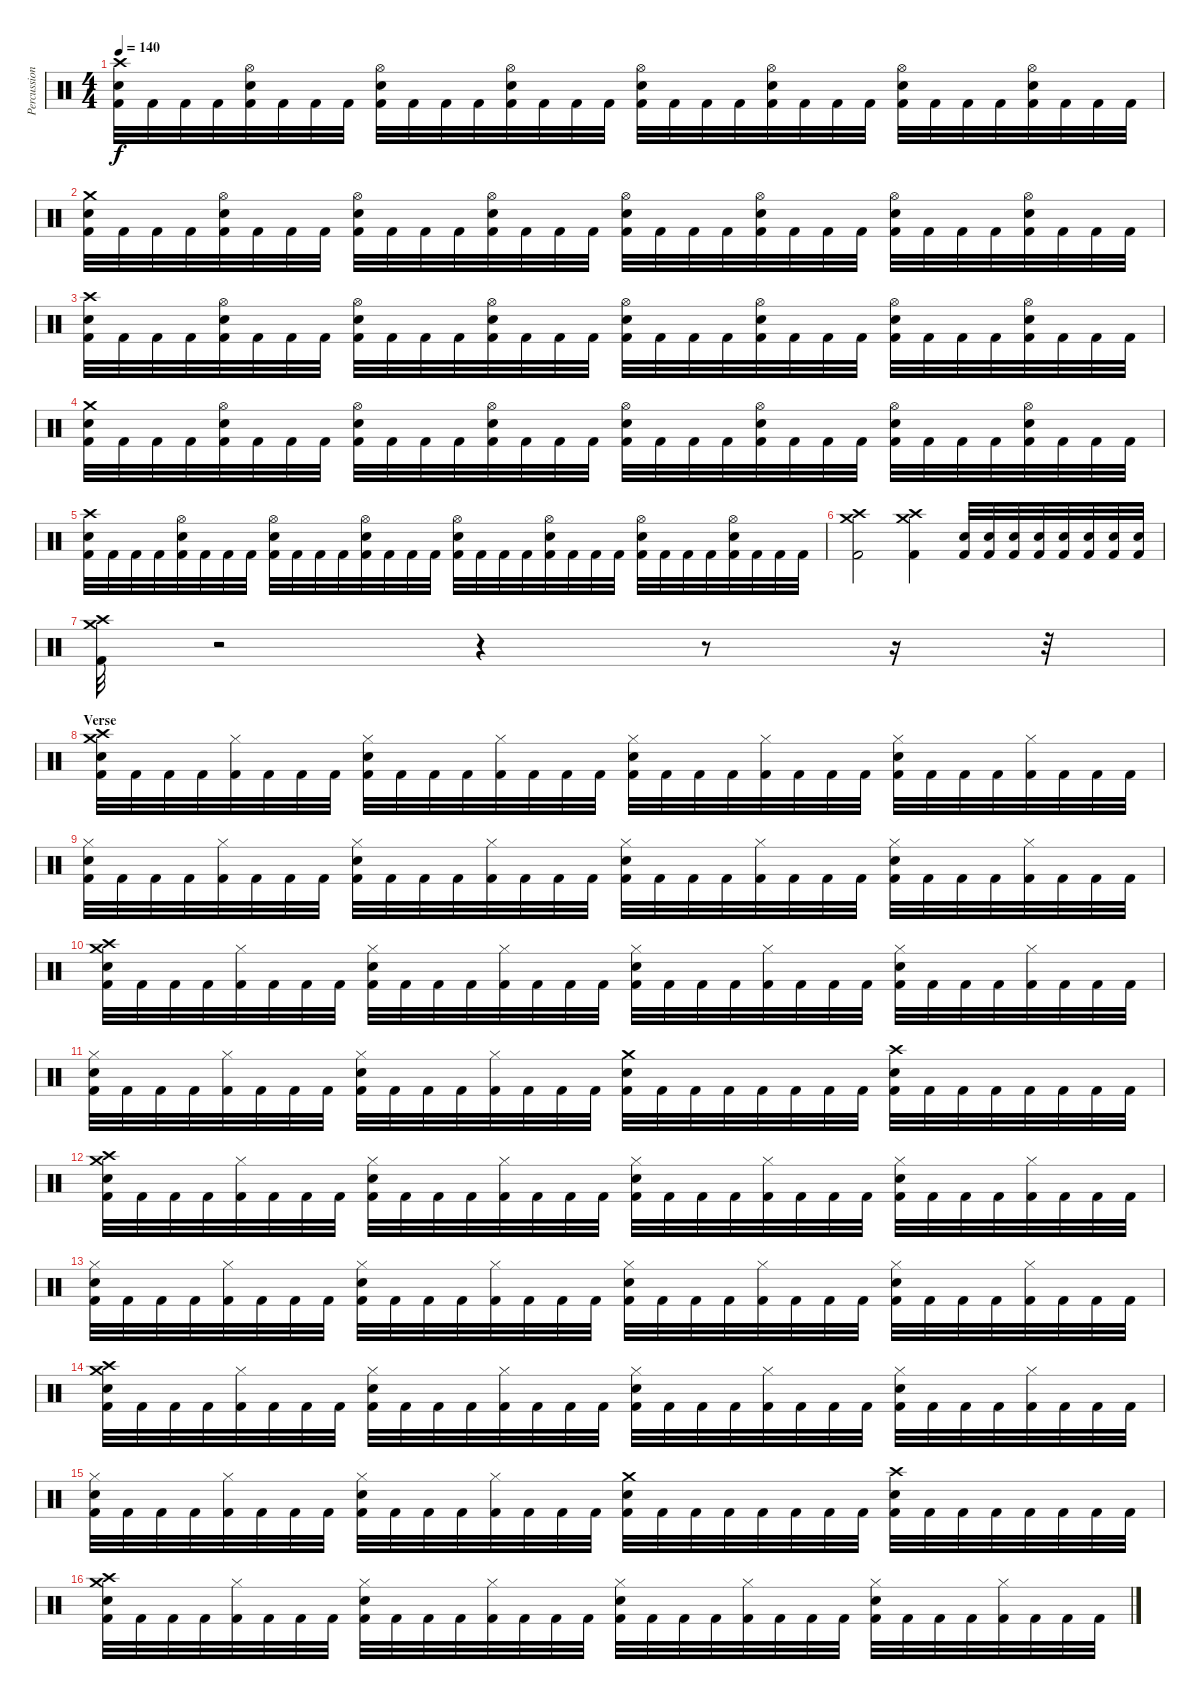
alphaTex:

\track ("Percussion" "Percussion") {instrument percussion}
\staff {score}
\articulation defaults
\ts (4 4)
\tempo 140
\clef neutral
\ks c
("Crash high (hit)" "Electric Snare (hit)" "Kick (hit) 2").32{dy f} "Kick (hit) 2".32 "Kick (hit) 2".32 "Kick (hit) 2".32 ("Hi-Hat (open)" "Electric Snare (hit)" "Kick (hit) 2").32 "Kick (hit) 2".32 "Kick (hit) 2".32 "Kick (hit) 2".32 ("Hi-Hat (open)" "Electric Snare (hit)" "Kick (hit) 2").32 "Kick (hit) 2".32 "Kick (hit) 2".32 "Kick (hit) 2".32 ("Hi-Hat (open)" "Electric Snare (hit)" "Kick (hit) 2").32 "Kick (hit) 2".32 "Kick (hit) 2".32 "Kick (hit) 2".32 ("Hi-Hat (open)" "Electric Snare (hit)" "Kick (hit) 2").32 "Kick (hit) 2".32 "Kick (hit) 2".32 "Kick (hit) 2".32 ("Hi-Hat (open)" "Electric Snare (hit)" "Kick (hit) 2").32 "Kick (hit) 2".32 "Kick (hit) 2".32 "Kick (hit) 2".32 ("Hi-Hat (open)" "Electric Snare (hit)" "Kick (hit) 2").32 "Kick (hit) 2".32 "Kick (hit) 2".32 "Kick (hit) 2".32 ("Hi-Hat (open)" "Electric Snare (hit)" "Kick (hit) 2").32 "Kick (hit) 2".32 "Kick (hit) 2".32 "Kick (hit) 2".32 |
("Crash medium (hit)" "Electric Snare (hit)" "Kick (hit) 2").32 "Kick (hit) 2".32 "Kick (hit) 2".32 "Kick (hit) 2".32 ("Hi-Hat (open)" "Electric Snare (hit)" "Kick (hit) 2").32 "Kick (hit) 2".32 "Kick (hit) 2".32 "Kick (hit) 2".32 ("Hi-Hat (open)" "Electric Snare (hit)" "Kick (hit) 2").32 "Kick (hit) 2".32 "Kick (hit) 2".32 "Kick (hit) 2".32 ("Hi-Hat (open)" "Electric Snare (hit)" "Kick (hit) 2").32 "Kick (hit) 2".32 "Kick (hit) 2".32 "Kick (hit) 2".32 ("Hi-Hat (open)" "Electric Snare (hit)" "Kick (hit) 2").32 "Kick (hit) 2".32 "Kick (hit) 2".32 "Kick (hit) 2".32 ("Hi-Hat (open)" "Electric Snare (hit)" "Kick (hit) 2").32 "Kick (hit) 2".32 "Kick (hit) 2".32 "Kick (hit) 2".32 ("Hi-Hat (open)" "Electric Snare (hit)" "Kick (hit) 2").32 "Kick (hit) 2".32 "Kick (hit) 2".32 "Kick (hit) 2".32 ("Hi-Hat (open)" "Electric Snare (hit)" "Kick (hit) 2").32 "Kick (hit) 2".32 "Kick (hit) 2".32 "Kick (hit) 2".32 |
("Crash high (hit)" "Electric Snare (hit)" "Kick (hit) 2").32 "Kick (hit) 2".32 "Kick (hit) 2".32 "Kick (hit) 2".32 ("Hi-Hat (open)" "Electric Snare (hit)" "Kick (hit) 2").32 "Kick (hit) 2".32 "Kick (hit) 2".32 "Kick (hit) 2".32 ("Hi-Hat (open)" "Electric Snare (hit)" "Kick (hit) 2").32 "Kick (hit) 2".32 "Kick (hit) 2".32 "Kick (hit) 2".32 ("Hi-Hat (open)" "Electric Snare (hit)" "Kick (hit) 2").32 "Kick (hit) 2".32 "Kick (hit) 2".32 "Kick (hit) 2".32 ("Hi-Hat (open)" "Electric Snare (hit)" "Kick (hit) 2").32 "Kick (hit) 2".32 "Kick (hit) 2".32 "Kick (hit) 2".32 ("Hi-Hat (open)" "Electric Snare (hit)" "Kick (hit) 2").32 "Kick (hit) 2".32 "Kick (hit) 2".32 "Kick (hit) 2".32 ("Hi-Hat (open)" "Electric Snare (hit)" "Kick (hit) 2").32 "Kick (hit) 2".32 "Kick (hit) 2".32 "Kick (hit) 2".32 ("Hi-Hat (open)" "Electric Snare (hit)" "Kick (hit) 2").32 "Kick (hit) 2".32 "Kick (hit) 2".32 "Kick (hit) 2".32 |
("Crash medium (hit)" "Electric Snare (hit)" "Kick (hit) 2").32 "Kick (hit) 2".32 "Kick (hit) 2".32 "Kick (hit) 2".32 ("Hi-Hat (open)" "Electric Snare (hit)" "Kick (hit) 2").32 "Kick (hit) 2".32 "Kick (hit) 2".32 "Kick (hit) 2".32 ("Hi-Hat (open)" "Electric Snare (hit)" "Kick (hit) 2").32 "Kick (hit) 2".32 "Kick (hit) 2".32 "Kick (hit) 2".32 ("Hi-Hat (open)" "Electric Snare (hit)" "Kick (hit) 2").32 "Kick (hit) 2".32 "Kick (hit) 2".32 "Kick (hit) 2".32 ("Hi-Hat (open)" "Electric Snare (hit)" "Kick (hit) 2").32 "Kick (hit) 2".32 "Kick (hit) 2".32 "Kick (hit) 2".32 ("Hi-Hat (open)" "Electric Snare (hit)" "Kick (hit) 2").32 "Kick (hit) 2".32 "Kick (hit) 2".32 "Kick (hit) 2".32 ("Hi-Hat (open)" "Electric Snare (hit)" "Kick (hit) 2").32 "Kick (hit) 2".32 "Kick (hit) 2".32 "Kick (hit) 2".32 ("Hi-Hat (open)" "Electric Snare (hit)" "Kick (hit) 2").32 "Kick (hit) 2".32 "Kick (hit) 2".32 "Kick (hit) 2".32 |
("Crash high (hit)" "Electric Snare (hit)" "Kick (hit) 2").32 "Kick (hit) 2".32 "Kick (hit) 2".32 "Kick (hit) 2".32 ("Hi-Hat (open)" "Electric Snare (hit)" "Kick (hit) 2").32 "Kick (hit) 2".32 "Kick (hit) 2".32 "Kick (hit) 2".32 ("Hi-Hat (open)" "Electric Snare (hit)" "Kick (hit) 2").32 "Kick (hit) 2".32 "Kick (hit) 2".32 "Kick (hit) 2".32 ("Hi-Hat (open)" "Electric Snare (hit)" "Kick (hit) 2").32 "Kick (hit) 2".32 "Kick (hit) 2".32 "Kick (hit) 2".32 ("Hi-Hat (open)" "Electric Snare (hit)" "Kick (hit) 2").32 "Kick (hit) 2".32 "Kick (hit) 2".32 "Kick (hit) 2".32 ("Hi-Hat (open)" "Electric Snare (hit)" "Kick (hit) 2").32 "Kick (hit) 2".32 "Kick (hit) 2".32 "Kick (hit) 2".32 ("Hi-Hat (open)" "Electric Snare (hit)" "Kick (hit) 2").32 "Kick (hit) 2".32 "Kick (hit) 2".32 "Kick (hit) 2".32 ("Hi-Hat (open)" "Electric Snare (hit)" "Kick (hit) 2").32 "Kick (hit) 2".32 "Kick (hit) 2".32 "Kick (hit) 2".32 |
("Crash medium (hit)" "Crash high (hit)" "Kick (hit) 2").2 ("Crash medium (hit)" "Crash high (hit)" "Kick (hit) 2").4 ("Electric Snare (hit)" "Kick (hit) 2").32 ("Electric Snare (hit)" "Kick (hit) 2").32 ("Electric Snare (hit)" "Kick (hit) 2").32 ("Electric Snare (hit)" "Kick (hit) 2").32 ("Electric Snare (hit)" "Kick (hit) 2").32 ("Electric Snare (hit)" "Kick (hit) 2").32 ("Electric Snare (hit)" "Kick (hit) 2").32 ("Electric Snare (hit)" "Kick (hit) 2").32 |
("Crash high (hit)" "Crash medium (hit)" "Kick (hit) 2").32 r.2 r.4 r.8 r.16 r.32 |
\section ("" "Verse")
("Crash medium (hit)" "Crash high (hit)" "Electric Snare (hit)" "Kick (hit) 2").32 "Kick (hit) 2".32 "Kick (hit) 2".32 "Kick (hit) 2".32 ("Hi-Hat (closed)" "Kick (hit) 2").32 "Kick (hit) 2".32 "Kick (hit) 2".32 "Kick (hit) 2".32 ("Hi-Hat (closed)" "Electric Snare (hit)" "Kick (hit) 2").32 "Kick (hit) 2".32 "Kick (hit) 2".32 "Kick (hit) 2".32 ("Hi-Hat (closed)" "Kick (hit) 2").32 "Kick (hit) 2".32 "Kick (hit) 2".32 "Kick (hit) 2".32 ("Hi-Hat (closed)" "Electric Snare (hit)" "Kick (hit) 2").32 "Kick (hit) 2".32 "Kick (hit) 2".32 "Kick (hit) 2".32 ("Hi-Hat (closed)" "Kick (hit) 2").32 "Kick (hit) 2".32 "Kick (hit) 2".32 "Kick (hit) 2".32 ("Hi-Hat (closed)" "Electric Snare (hit)" "Kick (hit) 2").32 "Kick (hit) 2".32 "Kick (hit) 2".32 "Kick (hit) 2".32 ("Hi-Hat (closed)" "Kick (hit) 2").32 "Kick (hit) 2".32 "Kick (hit) 2".32 "Kick (hit) 2".32 |
("Hi-Hat (closed)" "Electric Snare (hit)" "Kick (hit) 2").32 "Kick (hit) 2".32 "Kick (hit) 2".32 "Kick (hit) 2".32 ("Hi-Hat (closed)" "Kick (hit) 2").32 "Kick (hit) 2".32 "Kick (hit) 2".32 "Kick (hit) 2".32 ("Hi-Hat (closed)" "Electric Snare (hit)" "Kick (hit) 2").32 "Kick (hit) 2".32 "Kick (hit) 2".32 "Kick (hit) 2".32 ("Hi-Hat (closed)" "Kick (hit) 2").32 "Kick (hit) 2".32 "Kick (hit) 2".32 "Kick (hit) 2".32 ("Hi-Hat (closed)" "Electric Snare (hit)" "Kick (hit) 2").32 "Kick (hit) 2".32 "Kick (hit) 2".32 "Kick (hit) 2".32 ("Hi-Hat (closed)" "Kick (hit) 2").32 "Kick (hit) 2".32 "Kick (hit) 2".32 "Kick (hit) 2".32 ("Hi-Hat (closed)" "Electric Snare (hit)" "Kick (hit) 2").32 "Kick (hit) 2".32 "Kick (hit) 2".32 "Kick (hit) 2".32 ("Hi-Hat (closed)" "Kick (hit) 2").32 "Kick (hit) 2".32 "Kick (hit) 2".32 "Kick (hit) 2".32 |
("Crash medium (hit)" "Crash high (hit)" "Electric Snare (hit)" "Kick (hit) 2").32 "Kick (hit) 2".32 "Kick (hit) 2".32 "Kick (hit) 2".32 ("Hi-Hat (closed)" "Kick (hit) 2").32 "Kick (hit) 2".32 "Kick (hit) 2".32 "Kick (hit) 2".32 ("Hi-Hat (closed)" "Electric Snare (hit)" "Kick (hit) 2").32 "Kick (hit) 2".32 "Kick (hit) 2".32 "Kick (hit) 2".32 ("Hi-Hat (closed)" "Kick (hit) 2").32 "Kick (hit) 2".32 "Kick (hit) 2".32 "Kick (hit) 2".32 ("Hi-Hat (closed)" "Electric Snare (hit)" "Kick (hit) 2").32 "Kick (hit) 2".32 "Kick (hit) 2".32 "Kick (hit) 2".32 ("Hi-Hat (closed)" "Kick (hit) 2").32 "Kick (hit) 2".32 "Kick (hit) 2".32 "Kick (hit) 2".32 ("Hi-Hat (closed)" "Electric Snare (hit)" "Kick (hit) 2").32 "Kick (hit) 2".32 "Kick (hit) 2".32 "Kick (hit) 2".32 ("Hi-Hat (closed)" "Kick (hit) 2").32 "Kick (hit) 2".32 "Kick (hit) 2".32 "Kick (hit) 2".32 |
("Hi-Hat (closed)" "Electric Snare (hit)" "Kick (hit) 2").32 "Kick (hit) 2".32 "Kick (hit) 2".32 "Kick (hit) 2".32 ("Hi-Hat (closed)" "Kick (hit) 2").32 "Kick (hit) 2".32 "Kick (hit) 2".32 "Kick (hit) 2".32 ("Hi-Hat (closed)" "Electric Snare (hit)" "Kick (hit) 2").32 "Kick (hit) 2".32 "Kick (hit) 2".32 "Kick (hit) 2".32 ("Hi-Hat (closed)" "Kick (hit) 2").32 "Kick (hit) 2".32 "Kick (hit) 2".32 "Kick (hit) 2".32 ("Crash medium (hit)" "Electric Snare (hit)" "Kick (hit) 2").32 "Kick (hit) 2".32 "Kick (hit) 2".32 "Kick (hit) 2".32 "Kick (hit) 2".32 "Kick (hit) 2".32 "Kick (hit) 2".32 "Kick (hit) 2".32 ("Crash high (hit)" "Electric Snare (hit)" "Kick (hit) 2").32 "Kick (hit) 2".32 "Kick (hit) 2".32 "Kick (hit) 2".32 "Kick (hit) 2".32 "Kick (hit) 2".32 "Kick (hit) 2".32 "Kick (hit) 2".32 |
("Crash medium (hit)" "Crash high (hit)" "Electric Snare (hit)" "Kick (hit) 2").32 "Kick (hit) 2".32 "Kick (hit) 2".32 "Kick (hit) 2".32 ("Hi-Hat (closed)" "Kick (hit) 2").32 "Kick (hit) 2".32 "Kick (hit) 2".32 "Kick (hit) 2".32 ("Hi-Hat (closed)" "Electric Snare (hit)" "Kick (hit) 2").32 "Kick (hit) 2".32 "Kick (hit) 2".32 "Kick (hit) 2".32 ("Hi-Hat (closed)" "Kick (hit) 2").32 "Kick (hit) 2".32 "Kick (hit) 2".32 "Kick (hit) 2".32 ("Hi-Hat (closed)" "Electric Snare (hit)" "Kick (hit) 2").32 "Kick (hit) 2".32 "Kick (hit) 2".32 "Kick (hit) 2".32 ("Hi-Hat (closed)" "Kick (hit) 2").32 "Kick (hit) 2".32 "Kick (hit) 2".32 "Kick (hit) 2".32 ("Hi-Hat (closed)" "Electric Snare (hit)" "Kick (hit) 2").32 "Kick (hit) 2".32 "Kick (hit) 2".32 "Kick (hit) 2".32 ("Hi-Hat (closed)" "Kick (hit) 2").32 "Kick (hit) 2".32 "Kick (hit) 2".32 "Kick (hit) 2".32 |
("Hi-Hat (closed)" "Electric Snare (hit)" "Kick (hit) 2").32 "Kick (hit) 2".32 "Kick (hit) 2".32 "Kick (hit) 2".32 ("Hi-Hat (closed)" "Kick (hit) 2").32 "Kick (hit) 2".32 "Kick (hit) 2".32 "Kick (hit) 2".32 ("Hi-Hat (closed)" "Electric Snare (hit)" "Kick (hit) 2").32 "Kick (hit) 2".32 "Kick (hit) 2".32 "Kick (hit) 2".32 ("Hi-Hat (closed)" "Kick (hit) 2").32 "Kick (hit) 2".32 "Kick (hit) 2".32 "Kick (hit) 2".32 ("Hi-Hat (closed)" "Electric Snare (hit)" "Kick (hit) 2").32 "Kick (hit) 2".32 "Kick (hit) 2".32 "Kick (hit) 2".32 ("Hi-Hat (closed)" "Kick (hit) 2").32 "Kick (hit) 2".32 "Kick (hit) 2".32 "Kick (hit) 2".32 ("Hi-Hat (closed)" "Electric Snare (hit)" "Kick (hit) 2").32 "Kick (hit) 2".32 "Kick (hit) 2".32 "Kick (hit) 2".32 ("Hi-Hat (closed)" "Kick (hit) 2").32 "Kick (hit) 2".32 "Kick (hit) 2".32 "Kick (hit) 2".32 |
("Crash medium (hit)" "Crash high (hit)" "Electric Snare (hit)" "Kick (hit) 2").32 "Kick (hit) 2".32 "Kick (hit) 2".32 "Kick (hit) 2".32 ("Hi-Hat (closed)" "Kick (hit) 2").32 "Kick (hit) 2".32 "Kick (hit) 2".32 "Kick (hit) 2".32 ("Hi-Hat (closed)" "Electric Snare (hit)" "Kick (hit) 2").32 "Kick (hit) 2".32 "Kick (hit) 2".32 "Kick (hit) 2".32 ("Hi-Hat (closed)" "Kick (hit) 2").32 "Kick (hit) 2".32 "Kick (hit) 2".32 "Kick (hit) 2".32 ("Hi-Hat (closed)" "Electric Snare (hit)" "Kick (hit) 2").32 "Kick (hit) 2".32 "Kick (hit) 2".32 "Kick (hit) 2".32 ("Hi-Hat (closed)" "Kick (hit) 2").32 "Kick (hit) 2".32 "Kick (hit) 2".32 "Kick (hit) 2".32 ("Hi-Hat (closed)" "Electric Snare (hit)" "Kick (hit) 2").32 "Kick (hit) 2".32 "Kick (hit) 2".32 "Kick (hit) 2".32 ("Hi-Hat (closed)" "Kick (hit) 2").32 "Kick (hit) 2".32 "Kick (hit) 2".32 "Kick (hit) 2".32 |
("Hi-Hat (closed)" "Electric Snare (hit)" "Kick (hit) 2").32 "Kick (hit) 2".32 "Kick (hit) 2".32 "Kick (hit) 2".32 ("Hi-Hat (closed)" "Kick (hit) 2").32 "Kick (hit) 2".32 "Kick (hit) 2".32 "Kick (hit) 2".32 ("Hi-Hat (closed)" "Electric Snare (hit)" "Kick (hit) 2").32 "Kick (hit) 2".32 "Kick (hit) 2".32 "Kick (hit) 2".32 ("Hi-Hat (closed)" "Kick (hit) 2").32 "Kick (hit) 2".32 "Kick (hit) 2".32 "Kick (hit) 2".32 ("Crash medium (hit)" "Electric Snare (hit)" "Kick (hit) 2").32 "Kick (hit) 2".32 "Kick (hit) 2".32 "Kick (hit) 2".32 "Kick (hit) 2".32 "Kick (hit) 2".32 "Kick (hit) 2".32 "Kick (hit) 2".32 ("Crash high (hit)" "Electric Snare (hit)" "Kick (hit) 2").32 "Kick (hit) 2".32 "Kick (hit) 2".32 "Kick (hit) 2".32 "Kick (hit) 2".32 "Kick (hit) 2".32 "Kick (hit) 2".32 "Kick (hit) 2".32 |
("Crash medium (hit)" "Crash high (hit)" "Electric Snare (hit)" "Kick (hit) 2").32 "Kick (hit) 2".32 "Kick (hit) 2".32 "Kick (hit) 2".32 ("Hi-Hat (closed)" "Kick (hit) 2").32 "Kick (hit) 2".32 "Kick (hit) 2".32 "Kick (hit) 2".32 ("Hi-Hat (closed)" "Electric Snare (hit)" "Kick (hit) 2").32 "Kick (hit) 2".32 "Kick (hit) 2".32 "Kick (hit) 2".32 ("Hi-Hat (closed)" "Kick (hit) 2").32 "Kick (hit) 2".32 "Kick (hit) 2".32 "Kick (hit) 2".32 ("Hi-Hat (closed)" "Electric Snare (hit)" "Kick (hit) 2").32 "Kick (hit) 2".32 "Kick (hit) 2".32 "Kick (hit) 2".32 ("Hi-Hat (closed)" "Kick (hit) 2").32 "Kick (hit) 2".32 "Kick (hit) 2".32 "Kick (hit) 2".32 ("Hi-Hat (closed)" "Electric Snare (hit)" "Kick (hit) 2").32 "Kick (hit) 2".32 "Kick (hit) 2".32 "Kick (hit) 2".32 ("Hi-Hat (closed)" "Kick (hit) 2").32 "Kick (hit) 2".32 "Kick (hit) 2".32 "Kick (hit) 2".32
